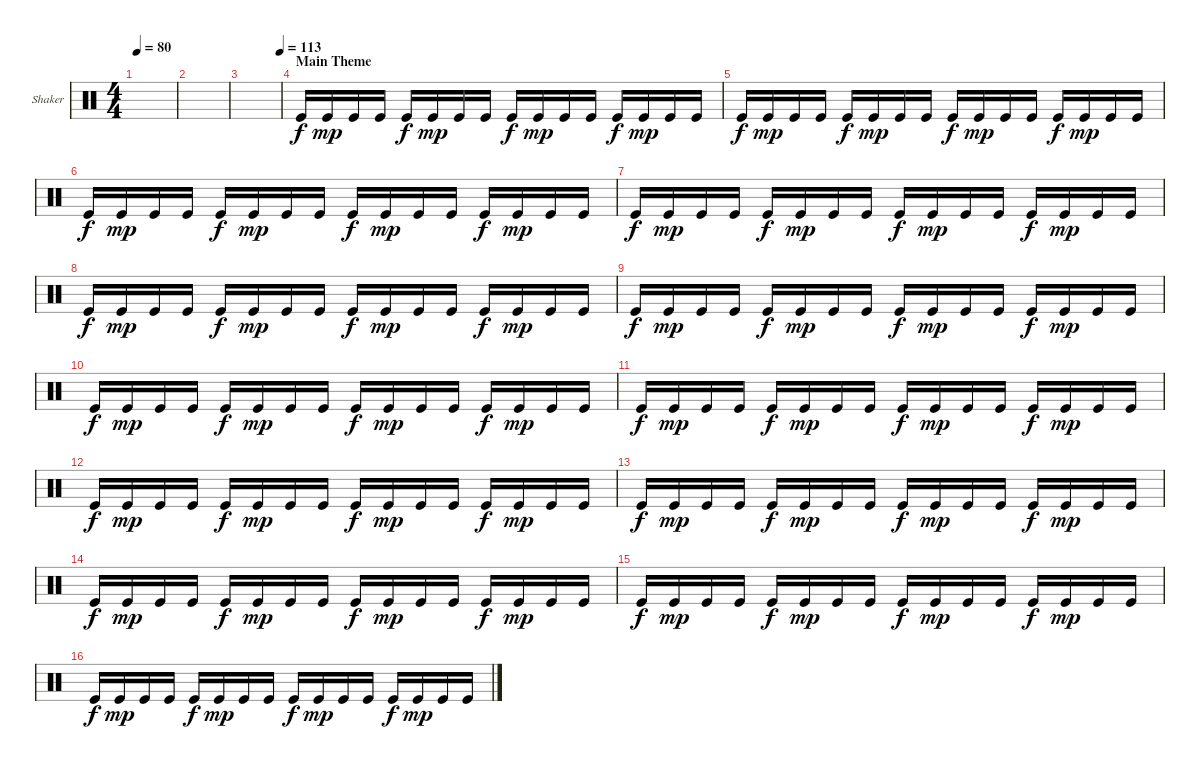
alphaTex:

\defaultSystemsLayout 4
\bracketExtendMode groupsimilarinstruments
\firstSystemTrackNameOrientation horizontal
\otherSystemsTrackNameOrientation horizontal
\track ("Shaker" "Shaker") {instrument percussion}
\staff {score}
\articulation defaults
\ts (4 4)
\tempo 80
\clef neutral
\scale
0.333333
\ks c
|
\scale
0.333333 |
\tempo (113 1)
\scale
0.333333 |
\section ("" "Main Theme")
\scale
0.333333 "Kick (hit)".16 "Kick (hit)".16{dy mp} "Kick (hit)".16 "Kick (hit)".16 "Kick (hit)".16{dy f} "Kick (hit)".16{dy mp} "Kick (hit)".16 "Kick (hit)".16 "Kick (hit)".16{dy f} "Kick (hit)".16{dy mp} "Kick (hit)".16 "Kick (hit)".16 "Kick (hit)".16{dy f} "Kick (hit)".16{dy mp} "Kick (hit)".16 "Kick (hit)".16 |
\scale
0.333333 "Kick (hit)".16{dy f} "Kick (hit)".16{dy mp} "Kick (hit)".16 "Kick (hit)".16 "Kick (hit)".16{dy f} "Kick (hit)".16{dy mp} "Kick (hit)".16 "Kick (hit)".16 "Kick (hit)".16{dy f} "Kick (hit)".16{dy mp} "Kick (hit)".16 "Kick (hit)".16 "Kick (hit)".16{dy f} "Kick (hit)".16{dy mp} "Kick (hit)".16 "Kick (hit)".16 |
\scale
0.333333 "Kick (hit)".16{dy f} "Kick (hit)".16{dy mp} "Kick (hit)".16 "Kick (hit)".16 "Kick (hit)".16{dy f} "Kick (hit)".16{dy mp} "Kick (hit)".16 "Kick (hit)".16 "Kick (hit)".16{dy f} "Kick (hit)".16{dy mp} "Kick (hit)".16 "Kick (hit)".16 "Kick (hit)".16{dy f} "Kick (hit)".16{dy mp} "Kick (hit)".16 "Kick (hit)".16 |
\scale
0.333333 "Kick (hit)".16{dy f} "Kick (hit)".16{dy mp} "Kick (hit)".16 "Kick (hit)".16 "Kick (hit)".16{dy f} "Kick (hit)".16{dy mp} "Kick (hit)".16 "Kick (hit)".16 "Kick (hit)".16{dy f} "Kick (hit)".16{dy mp} "Kick (hit)".16 "Kick (hit)".16 "Kick (hit)".16{dy f} "Kick (hit)".16{dy mp} "Kick (hit)".16 "Kick (hit)".16 |
\scale
0.333333 "Kick (hit)".16{dy f} "Kick (hit)".16{dy mp} "Kick (hit)".16 "Kick (hit)".16 "Kick (hit)".16{dy f} "Kick (hit)".16{dy mp} "Kick (hit)".16 "Kick (hit)".16 "Kick (hit)".16{dy f} "Kick (hit)".16{dy mp} "Kick (hit)".16 "Kick (hit)".16 "Kick (hit)".16{dy f} "Kick (hit)".16{dy mp} "Kick (hit)".16 "Kick (hit)".16 |
\scale
0.333333 "Kick (hit)".16{dy f} "Kick (hit)".16{dy mp} "Kick (hit)".16 "Kick (hit)".16 "Kick (hit)".16{dy f} "Kick (hit)".16{dy mp} "Kick (hit)".16 "Kick (hit)".16 "Kick (hit)".16{dy f} "Kick (hit)".16{dy mp} "Kick (hit)".16 "Kick (hit)".16 "Kick (hit)".16{dy f} "Kick (hit)".16{dy mp} "Kick (hit)".16 "Kick (hit)".16 |
\scale
0.333333 "Kick (hit)".16{dy f} "Kick (hit)".16{dy mp} "Kick (hit)".16 "Kick (hit)".16 "Kick (hit)".16{dy f} "Kick (hit)".16{dy mp} "Kick (hit)".16 "Kick (hit)".16 "Kick (hit)".16{dy f} "Kick (hit)".16{dy mp} "Kick (hit)".16 "Kick (hit)".16 "Kick (hit)".16{dy f} "Kick (hit)".16{dy mp} "Kick (hit)".16 "Kick (hit)".16 |
\scale
0.333333 "Kick (hit)".16{dy f} "Kick (hit)".16{dy mp} "Kick (hit)".16 "Kick (hit)".16 "Kick (hit)".16{dy f} "Kick (hit)".16{dy mp} "Kick (hit)".16 "Kick (hit)".16 "Kick (hit)".16{dy f} "Kick (hit)".16{dy mp} "Kick (hit)".16 "Kick (hit)".16 "Kick (hit)".16{dy f} "Kick (hit)".16{dy mp} "Kick (hit)".16 "Kick (hit)".16 |
\scale
0.333333 "Kick (hit)".16{dy f} "Kick (hit)".16{dy mp} "Kick (hit)".16 "Kick (hit)".16 "Kick (hit)".16{dy f} "Kick (hit)".16{dy mp} "Kick (hit)".16 "Kick (hit)".16 "Kick (hit)".16{dy f} "Kick (hit)".16{dy mp} "Kick (hit)".16 "Kick (hit)".16 "Kick (hit)".16{dy f} "Kick (hit)".16{dy mp} "Kick (hit)".16 "Kick (hit)".16 |
\scale
0.333333 "Kick (hit)".16{dy f} "Kick (hit)".16{dy mp} "Kick (hit)".16 "Kick (hit)".16 "Kick (hit)".16{dy f} "Kick (hit)".16{dy mp} "Kick (hit)".16 "Kick (hit)".16 "Kick (hit)".16{dy f} "Kick (hit)".16{dy mp} "Kick (hit)".16 "Kick (hit)".16 "Kick (hit)".16{dy f} "Kick (hit)".16{dy mp} "Kick (hit)".16 "Kick (hit)".16 |
\scale
0.333333 "Kick (hit)".16{dy f} "Kick (hit)".16{dy mp} "Kick (hit)".16 "Kick (hit)".16 "Kick (hit)".16{dy f} "Kick (hit)".16{dy mp} "Kick (hit)".16 "Kick (hit)".16 "Kick (hit)".16{dy f} "Kick (hit)".16{dy mp} "Kick (hit)".16 "Kick (hit)".16 "Kick (hit)".16{dy f} "Kick (hit)".16{dy mp} "Kick (hit)".16 "Kick (hit)".16 |
\scale
0.333333 "Kick (hit)".16{dy f} "Kick (hit)".16{dy mp} "Kick (hit)".16 "Kick (hit)".16 "Kick (hit)".16{dy f} "Kick (hit)".16{dy mp} "Kick (hit)".16 "Kick (hit)".16 "Kick (hit)".16{dy f} "Kick (hit)".16{dy mp} "Kick (hit)".16 "Kick (hit)".16 "Kick (hit)".16{dy f} "Kick (hit)".16{dy mp} "Kick (hit)".16 "Kick (hit)".16 |
\scale
0.333333 "Kick (hit)".16{dy f} "Kick (hit)".16{dy mp} "Kick (hit)".16 "Kick (hit)".16 "Kick (hit)".16{dy f} "Kick (hit)".16{dy mp} "Kick (hit)".16 "Kick (hit)".16 "Kick (hit)".16{dy f} "Kick (hit)".16{dy mp} "Kick (hit)".16 "Kick (hit)".16 "Kick (hit)".16{dy f} "Kick (hit)".16{dy mp} "Kick (hit)".16 "Kick (hit)".16
